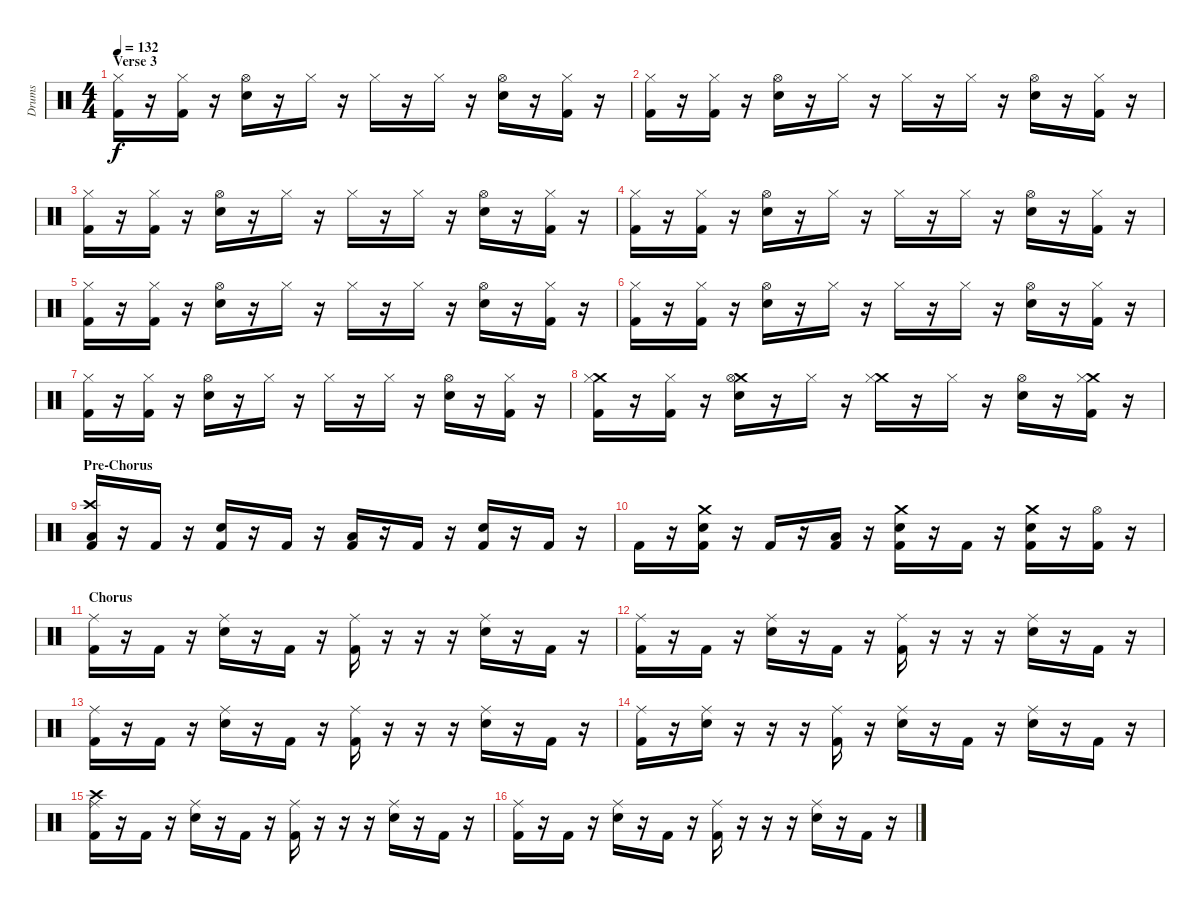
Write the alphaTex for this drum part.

\track ("Drums" "Drums") {instrument percussion}
\staff {score}
\articulation defaults
\ts (4 4)
\section ("" "Verse 3")
\tempo 132
\clef neutral
\ks c
("Hi-Hat (closed)" "Kick (hit) 2").16{dy f} r.16 ("Hi-Hat (closed)" "Kick (hit) 2").16 r.16 ("Hi-Hat (open)" "Snare (hit) 2").16 r.16 "Hi-Hat (closed)".16 r.16 "Hi-Hat (closed)".16 r.16 "Hi-Hat (closed)".16 r.16 ("Hi-Hat (open)" "Snare (hit) 2").16 r.16 ("Hi-Hat (closed)" "Kick (hit) 2").16 r.16 |
("Hi-Hat (closed)" "Kick (hit) 2").16 r.16 ("Hi-Hat (closed)" "Kick (hit) 2").16 r.16 ("Hi-Hat (open)" "Snare (hit) 2").16 r.16 "Hi-Hat (closed)".16 r.16 "Hi-Hat (closed)".16 r.16 "Hi-Hat (closed)".16 r.16 ("Hi-Hat (open)" "Snare (hit) 2").16 r.16 ("Hi-Hat (closed)" "Kick (hit) 2").16 r.16 |
("Hi-Hat (closed)" "Kick (hit) 2").16 r.16 ("Hi-Hat (closed)" "Kick (hit) 2").16 r.16 ("Hi-Hat (open)" "Snare (hit) 2").16 r.16 "Hi-Hat (closed)".16 r.16 "Hi-Hat (closed)".16 r.16 "Hi-Hat (closed)".16 r.16 ("Hi-Hat (open)" "Snare (hit) 2").16 r.16 ("Hi-Hat (closed)" "Kick (hit) 2").16 r.16 |
("Hi-Hat (closed)" "Kick (hit) 2").16 r.16 ("Hi-Hat (closed)" "Kick (hit) 2").16 r.16 ("Hi-Hat (open)" "Snare (hit) 2").16 r.16 "Hi-Hat (closed)".16 r.16 "Hi-Hat (closed)".16 r.16 "Hi-Hat (closed)".16 r.16 ("Hi-Hat (open)" "Snare (hit) 2").16 r.16 ("Hi-Hat (closed)" "Kick (hit) 2").16 r.16 |
("Hi-Hat (closed)" "Kick (hit) 2").16 r.16 ("Hi-Hat (closed)" "Kick (hit) 2").16 r.16 ("Hi-Hat (open)" "Snare (hit) 2").16 r.16 "Hi-Hat (closed)".16 r.16 "Hi-Hat (closed)".16 r.16 "Hi-Hat (closed)".16 r.16 ("Hi-Hat (open)" "Snare (hit) 2").16 r.16 ("Hi-Hat (closed)" "Kick (hit) 2").16 r.16 |
("Hi-Hat (closed)" "Kick (hit) 2").16 r.16 ("Hi-Hat (closed)" "Kick (hit) 2").16 r.16 ("Hi-Hat (open)" "Snare (hit) 2").16 r.16 "Hi-Hat (closed)".16 r.16 "Hi-Hat (closed)".16 r.16 "Hi-Hat (closed)".16 r.16 ("Hi-Hat (open)" "Snare (hit) 2").16 r.16 ("Hi-Hat (closed)" "Kick (hit) 2").16 r.16 |
("Hi-Hat (closed)" "Kick (hit) 2").16 r.16 ("Hi-Hat (closed)" "Kick (hit) 2").16 r.16 ("Hi-Hat (open)" "Snare (hit) 2").16 r.16 "Hi-Hat (closed)".16 r.16 "Hi-Hat (closed)".16 r.16 "Hi-Hat (closed)".16 r.16 ("Hi-Hat (open)" "Snare (hit) 2").16 r.16 ("Hi-Hat (closed)" "Kick (hit) 2").16 r.16 |
("Crash medium (hit)" "Hi-Hat (closed)" "Kick (hit) 2").16 r.16 ("Hi-Hat (closed)" "Kick (hit) 2").16 r.16 ("Crash medium (hit)" "Hi-Hat (open)" "Snare (hit) 2").16 r.16 "Hi-Hat (closed)".16 r.16 ("Crash medium (hit)" "Hi-Hat (closed)").16 r.16 "Hi-Hat (closed)".16 r.16 ("Hi-Hat (open)" "Snare (hit) 2").16 r.16 ("Crash medium (hit)" "Hi-Hat (closed)" "Kick (hit) 2").16 r.16 |
\section ("" "Pre-Chorus")
("Crash high (hit)" "Low Tom (hit)" "Kick (hit) 2").16 r.16 "Kick (hit) 2".16 r.16 ("Snare (hit) 2" "Kick (hit) 2").16 r.16 "Kick (hit) 2".16 r.16 ("Low Tom (hit)" "Kick (hit) 2").16 r.16 "Kick (hit) 2".16 r.16 ("Snare (hit) 2" "Kick (hit) 2").16 r.16 "Kick (hit) 2".16 r.16 |
"Kick (hit) 2".16 r.16 ("Crash medium (hit)" "Snare (hit) 2" "Kick (hit) 2").16 r.16 "Kick (hit) 2".16 r.16 ("Low Tom (hit)" "Kick (hit) 2").16 r.16 ("Crash medium (hit)" "Snare (hit) 2" "Kick (hit) 2").16 r.16 "Kick (hit) 2".16 r.16 ("Crash medium (hit)" "Snare (hit) 2" "Kick (hit) 2").16 r.16 ("Hi-Hat (open)" "Kick (hit) 2").16 r.16 |
\section ("" "Chorus")
("Ride (middle)" "Kick (hit) 2").16 r.16 "Kick (hit) 2".16 r.16 ("Ride (middle)" "Snare (hit) 2").16 r.16 "Kick (hit) 2".16 r.16 ("Ride (middle)" "Kick (hit) 2").16 r.16 r.16 r.16 ("Ride (middle)" "Snare (hit) 2").16 r.16 "Kick (hit) 2".16 r.16 |
("Ride (middle)" "Kick (hit) 2").16 r.16 "Kick (hit) 2".16 r.16 ("Ride (middle)" "Snare (hit) 2").16 r.16 "Kick (hit) 2".16 r.16 ("Ride (middle)" "Kick (hit) 2").16 r.16 r.16 r.16 ("Ride (middle)" "Snare (hit) 2").16 r.16 "Kick (hit) 2".16 r.16 |
("Ride (middle)" "Kick (hit) 2").16 r.16 "Kick (hit) 2".16 r.16 ("Ride (middle)" "Snare (hit) 2").16 r.16 "Kick (hit) 2".16 r.16 ("Ride (middle)" "Kick (hit) 2").16 r.16 r.16 r.16 ("Ride (middle)" "Snare (hit) 2").16 r.16 "Kick (hit) 2".16 r.16 |
("Ride (middle)" "Kick (hit) 2").16 r.16 ("Ride (middle)" "Snare (hit) 2").16 r.16 r.16 r.16 ("Ride (middle)" "Kick (hit) 2").16 r.16 ("Ride (middle)" "Snare (hit) 2").16 r.16 "Kick (hit) 2".16 r.16 ("Ride (middle)" "Snare (hit) 2").16 r.16 "Kick (hit) 2".16 r.16 |
("Crash high (hit)" "Ride (middle)" "Kick (hit) 2").16 r.16 "Kick (hit) 2".16 r.16 ("Ride (middle)" "Snare (hit) 2").16 r.16 "Kick (hit) 2".16 r.16 ("Ride (middle)" "Kick (hit) 2").16 r.16 r.16 r.16 ("Ride (middle)" "Snare (hit) 2").16 r.16 "Kick (hit) 2".16 r.16 |
("Ride (middle)" "Kick (hit) 2").16 r.16 "Kick (hit) 2".16 r.16 ("Ride (middle)" "Snare (hit) 2").16 r.16 "Kick (hit) 2".16 r.16 ("Ride (middle)" "Kick (hit) 2").16 r.16 r.16 r.16 ("Ride (middle)" "Snare (hit) 2").16 r.16 "Kick (hit) 2".16 r.16
